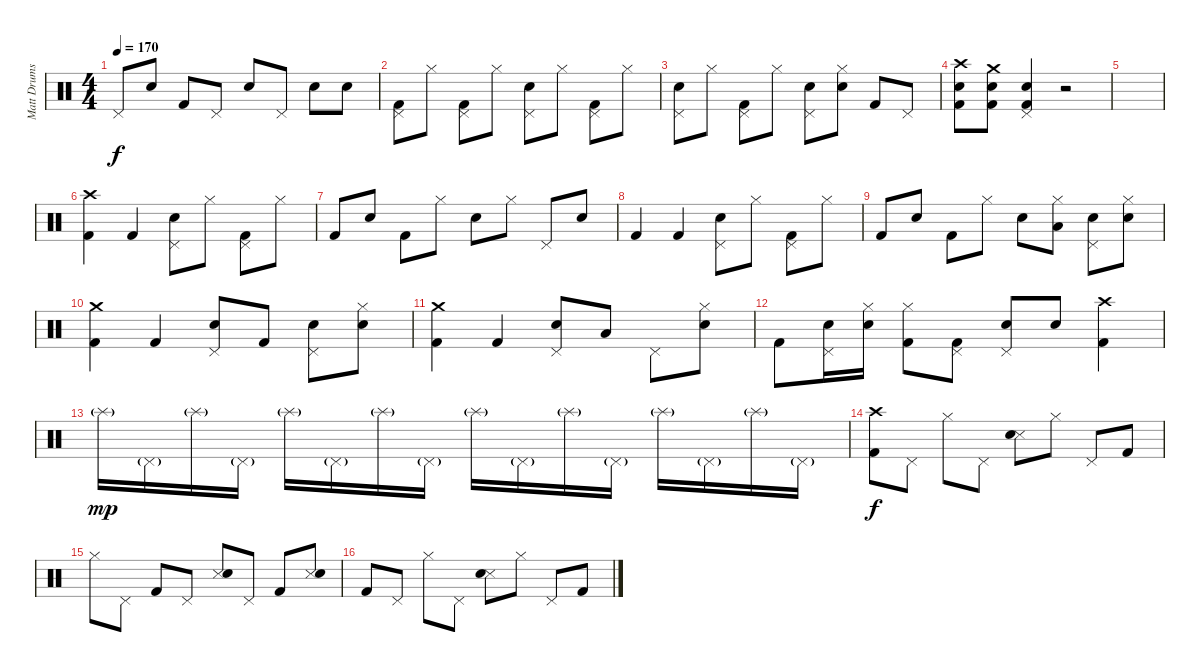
\track ("Matt Drums" "Matt Drums") {instrument percussion}
\staff {score}
\articulation defaults
\ts (4 4)
\tempo 170
\clef neutral
\ks c "Pedal Hi-Hat (hit)".8{dy f} "Electric Snare (hit)".8 "Kick (hit) 2".8 "Pedal Hi-Hat (hit)".8 "Electric Snare (hit)".8 "Pedal Hi-Hat (hit)".8 "Electric Snare (hit)".8 "Electric Snare (hit)".8
|
("Pedal Hi-Hat (hit)" "Kick (hit) 2").8 "Hi-Hat (closed)".8 ("Pedal Hi-Hat (hit)" "Kick (hit) 2").8 "Hi-Hat (closed)".8 ("Pedal Hi-Hat (hit)" "Electric Snare (hit)").8 "Hi-Hat (closed)".8 ("Pedal Hi-Hat (hit)" "Kick (hit) 2").8 "Hi-Hat (closed)".8 |
("Pedal Hi-Hat (hit)" "Electric Snare (hit)").8 "Hi-Hat (closed)".8 ("Pedal Hi-Hat (hit)" "Kick (hit) 2").8 "Hi-Hat (closed)".8 ("Pedal Hi-Hat (hit)" "Electric Snare (hit)").8 ("Hi-Hat (closed)" "Electric Snare (hit)").8 "Kick (hit) 2".8 "Pedal Hi-Hat (hit)".8 |
("Crash high (hit)" "Electric Snare (hit)" "Kick (hit) 2").8 ("Crash medium (hit)" "Electric Snare (hit)" "Kick (hit) 2").8 ("Pedal Hi-Hat (hit)" "Electric Snare (hit)" "Kick (hit) 2").4 r.2 |
|
("Crash high (hit)" "Kick (hit) 2").4 "Kick (hit) 2".4 ("Pedal Hi-Hat (hit)" "Electric Snare (hit)").8 "Hi-Hat (closed)".8 ("Pedal Hi-Hat (hit)" "Kick (hit) 2").8 "Hi-Hat (closed)".8 |
"Kick (hit) 2".8 "Electric Snare (hit)".8 "Kick (hit) 2".8 "Hi-Hat (closed)".8 "Electric Snare (hit)".8 "Hi-Hat (closed)".8 "Pedal Hi-Hat (hit)".8 "Electric Snare (hit)".8 |
"Kick (hit) 2".4 "Kick (hit) 2".4 ("Pedal Hi-Hat (hit)" "Electric Snare (hit)").8 "Hi-Hat (closed)".8 ("Pedal Hi-Hat (hit)" "Kick (hit) 2").8 "Hi-Hat (closed)".8 |
"Kick (hit) 2".8 "Electric Snare (hit)".8 "Kick (hit) 2".8 "Hi-Hat (closed)".8 "Electric Snare (hit)".8 ("Hi-Hat (closed)" "Low Tom (hit)").8 ("Pedal Hi-Hat (hit)" "Electric Snare (hit)").8 ("Hi-Hat (closed)" "Electric Snare (hit)").8 |
("Crash medium (hit)" "Kick (hit) 2").4 "Kick (hit) 2".4 ("Pedal Hi-Hat (hit)" "Electric Snare (hit)").8 "Kick (hit) 2".8 ("Pedal Hi-Hat (hit)" "Electric Snare (hit)").8 ("Hi-Hat (closed)" "Electric Snare (hit)").8 |
("Crash medium (hit)" "Kick (hit) 2").4 "Kick (hit) 2".4 ("Pedal Hi-Hat (hit)" "Electric Snare (hit)").8 "Low Tom (hit)".8 "Pedal Hi-Hat (hit)".8 ("Hi-Hat (closed)" "Electric Snare (hit)").8 |
"Kick (hit) 2".8 ("Pedal Hi-Hat (hit)" "Electric Snare (hit)").16 ("Hi-Hat (closed)" "Electric Snare (hit)").16 ("Hi-Hat (closed)" "Kick (hit) 2").8 ("Pedal Hi-Hat (hit)" "Kick (hit) 2").8 ("Pedal Hi-Hat (hit)" "Electric Snare (hit)").8 "Electric Snare (hit)".8 ("Crash high (hit)" "Kick (hit) 2").4 |
"Splash (hit)"{g}.16{dy mp} "Pedal Hi-Hat (hit)"{g}.16 "Splash (hit)"{g}.16 "Pedal Hi-Hat (hit)"{g}.16 "Splash (hit)"{g}.16 "Pedal Hi-Hat (hit)"{g}.16 "Splash (hit)"{g}.16 "Pedal Hi-Hat (hit)"{g}.16 "Splash (hit)"{g}.16 "Pedal Hi-Hat (hit)"{g}.16 "Splash (hit)"{g}.16 "Pedal Hi-Hat (hit)"{g}.16 "Splash (hit)"{g}.16 "Pedal Hi-Hat (hit)"{g}.16 "Splash (hit)"{g}.16 "Pedal Hi-Hat (hit)"{g}.16 |
("Crash high (hit)" "Kick (hit) 2").8{dy f} "Pedal Hi-Hat (hit)".8 "Hi-Hat (closed)".8 "Pedal Hi-Hat (hit)".8 ("Snare (side stick) 3" "Electric Snare (hit)").8 "Hi-Hat (closed)".8 "Pedal Hi-Hat (hit)".8 "Kick (hit) 2".8 |
"Hi-Hat (closed)".8 "Pedal Hi-Hat (hit)".8 "Kick (hit) 2".8 "Pedal Hi-Hat (hit)".8 ("Snare (side stick) 3" "Electric Snare (hit)").8 "Pedal Hi-Hat (hit)".8 "Kick (hit) 2".8 ("Snare (side stick) 3" "Electric Snare (hit)").8 |
"Kick (hit) 2".8 "Pedal Hi-Hat (hit)".8 "Hi-Hat (closed)".8 "Pedal Hi-Hat (hit)".8 ("Snare (side stick) 3" "Electric Snare (hit)").8 "Hi-Hat (closed)".8 "Pedal Hi-Hat (hit)".8 "Kick (hit) 2".8
